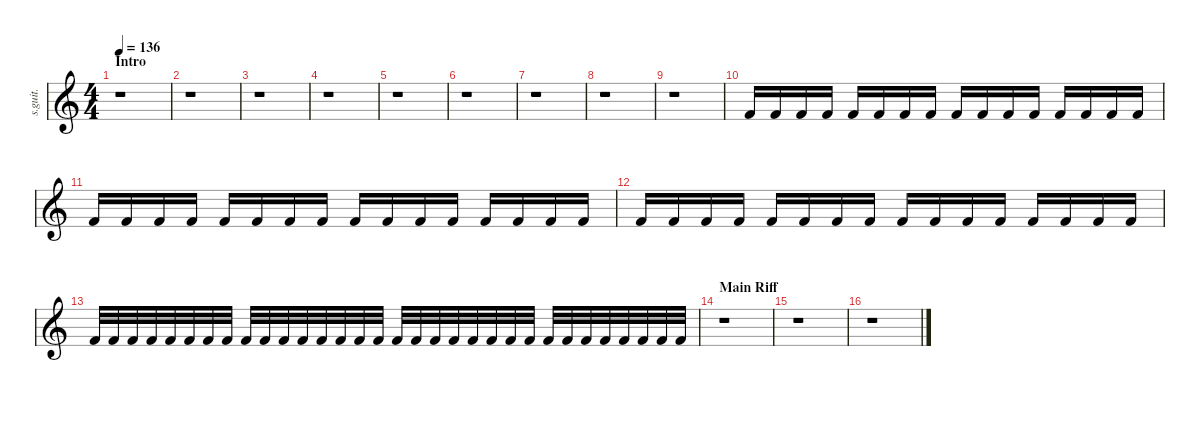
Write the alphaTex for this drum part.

\defaultSystemsLayout 4
\hideDynamics
\bracketExtendMode nobrackets
\track ("Sid Wilson (Scratch)" "s.guit.") {instrument percussion}
\staff {score}
\articulation defaults
\ts (4 4)
\beaming (8 2 2 2 2)
\section ("" "Intro")
\tempo 136
\clef g2
\ks c
r.1{dy f} |
r.1 |
r.1 |
r.1 |
r.1 |
r.1 |
r.1 |
r.1 |
r.1 |
"Kick (hit) 2".16{lyrics (0 "") lyrics (1 "") lyrics (2 "") lyrics (3 "") lyrics (4 "")} "Kick (hit) 2".16{lyrics (0 "") lyrics (1 "") lyrics (2 "") lyrics (3 "") lyrics (4 "")} "Kick (hit) 2".16{lyrics (0 "") lyrics (1 "") lyrics (2 "") lyrics (3 "") lyrics (4 "")} "Kick (hit) 2".16{lyrics (0 "") lyrics (1 "") lyrics (2 "") lyrics (3 "") lyrics (4 "")} "Kick (hit) 2".16{lyrics (0 "") lyrics (1 "") lyrics (2 "") lyrics (3 "") lyrics (4 "")} "Kick (hit) 2".16{lyrics (0 "") lyrics (1 "") lyrics (2 "") lyrics (3 "") lyrics (4 "")} "Kick (hit) 2".16{lyrics (0 "") lyrics (1 "") lyrics (2 "") lyrics (3 "") lyrics (4 "")} "Kick (hit) 2".16{lyrics (0 "") lyrics (1 "") lyrics (2 "") lyrics (3 "") lyrics (4 "")} "Kick (hit) 2".16{lyrics (0 "") lyrics (1 "") lyrics (2 "") lyrics (3 "") lyrics (4 "")} "Kick (hit) 2".16{lyrics (0 "") lyrics (1 "") lyrics (2 "") lyrics (3 "") lyrics (4 "")} "Kick (hit) 2".16{lyrics (0 "") lyrics (1 "") lyrics (2 "") lyrics (3 "") lyrics (4 "")} "Kick (hit) 2".16{lyrics (0 "") lyrics (1 "") lyrics (2 "") lyrics (3 "") lyrics (4 "")} "Kick (hit) 2".16{lyrics (0 "") lyrics (1 "") lyrics (2 "") lyrics (3 "") lyrics (4 "")} "Kick (hit) 2".16{lyrics (0 "") lyrics (1 "") lyrics (2 "") lyrics (3 "") lyrics (4 "")} "Kick (hit) 2".16{lyrics (0 "") lyrics (1 "") lyrics (2 "") lyrics (3 "") lyrics (4 "")} "Kick (hit) 2".16{lyrics (0 "") lyrics (1 "") lyrics (2 "") lyrics (3 "") lyrics (4 "")} |
"Kick (hit) 2".16{lyrics (0 "") lyrics (1 "") lyrics (2 "") lyrics (3 "") lyrics (4 "")} "Kick (hit) 2".16{lyrics (0 "") lyrics (1 "") lyrics (2 "") lyrics (3 "") lyrics (4 "")} "Kick (hit) 2".16{lyrics (0 "") lyrics (1 "") lyrics (2 "") lyrics (3 "") lyrics (4 "")} "Kick (hit) 2".16{lyrics (0 "") lyrics (1 "") lyrics (2 "") lyrics (3 "") lyrics (4 "")} "Kick (hit) 2".16{lyrics (0 "") lyrics (1 "") lyrics (2 "") lyrics (3 "") lyrics (4 "")} "Kick (hit) 2".16{lyrics (0 "") lyrics (1 "") lyrics (2 "") lyrics (3 "") lyrics (4 "")} "Kick (hit) 2".16{lyrics (0 "") lyrics (1 "") lyrics (2 "") lyrics (3 "") lyrics (4 "")} "Kick (hit) 2".16{lyrics (0 "") lyrics (1 "") lyrics (2 "") lyrics (3 "") lyrics (4 "")} "Kick (hit) 2".16{lyrics (0 "") lyrics (1 "") lyrics (2 "") lyrics (3 "") lyrics (4 "")} "Kick (hit) 2".16{lyrics (0 "") lyrics (1 "") lyrics (2 "") lyrics (3 "") lyrics (4 "")} "Kick (hit) 2".16{lyrics (0 "") lyrics (1 "") lyrics (2 "") lyrics (3 "") lyrics (4 "")} "Kick (hit) 2".16{lyrics (0 "") lyrics (1 "") lyrics (2 "") lyrics (3 "") lyrics (4 "")} "Kick (hit) 2".16{lyrics (0 "") lyrics (1 "") lyrics (2 "") lyrics (3 "") lyrics (4 "")} "Kick (hit) 2".16{lyrics (0 "") lyrics (1 "") lyrics (2 "") lyrics (3 "") lyrics (4 "")} "Kick (hit) 2".16{lyrics (0 "") lyrics (1 "") lyrics (2 "") lyrics (3 "") lyrics (4 "")} "Kick (hit) 2".16{lyrics (0 "") lyrics (1 "") lyrics (2 "") lyrics (3 "") lyrics (4 "")} |
"Kick (hit) 2".16{lyrics (0 "") lyrics (1 "") lyrics (2 "") lyrics (3 "") lyrics (4 "")} "Kick (hit) 2".16{lyrics (0 "") lyrics (1 "") lyrics (2 "") lyrics (3 "") lyrics (4 "")} "Kick (hit) 2".16{lyrics (0 "") lyrics (1 "") lyrics (2 "") lyrics (3 "") lyrics (4 "")} "Kick (hit) 2".16{lyrics (0 "") lyrics (1 "") lyrics (2 "") lyrics (3 "") lyrics (4 "")} "Kick (hit) 2".16{lyrics (0 "") lyrics (1 "") lyrics (2 "") lyrics (3 "") lyrics (4 "")} "Kick (hit) 2".16{lyrics (0 "") lyrics (1 "") lyrics (2 "") lyrics (3 "") lyrics (4 "")} "Kick (hit) 2".16{lyrics (0 "") lyrics (1 "") lyrics (2 "") lyrics (3 "") lyrics (4 "")} "Kick (hit) 2".16{lyrics (0 "") lyrics (1 "") lyrics (2 "") lyrics (3 "") lyrics (4 "")} "Kick (hit) 2".16{lyrics (0 "") lyrics (1 "") lyrics (2 "") lyrics (3 "") lyrics (4 "")} "Kick (hit) 2".16{lyrics (0 "") lyrics (1 "") lyrics (2 "") lyrics (3 "") lyrics (4 "")} "Kick (hit) 2".16{lyrics (0 "") lyrics (1 "") lyrics (2 "") lyrics (3 "") lyrics (4 "")} "Kick (hit) 2".16{lyrics (0 "") lyrics (1 "") lyrics (2 "") lyrics (3 "") lyrics (4 "")} "Kick (hit) 2".16{lyrics (0 "") lyrics (1 "") lyrics (2 "") lyrics (3 "") lyrics (4 "")} "Kick (hit) 2".16{lyrics (0 "") lyrics (1 "") lyrics (2 "") lyrics (3 "") lyrics (4 "")} "Kick (hit) 2".16{lyrics (0 "") lyrics (1 "") lyrics (2 "") lyrics (3 "") lyrics (4 "")} "Kick (hit) 2".16{lyrics (0 "") lyrics (1 "") lyrics (2 "") lyrics (3 "") lyrics (4 "")} |
"Kick (hit) 2".32{lyrics (0 "") lyrics (1 "") lyrics (2 "") lyrics (3 "") lyrics (4 "")} "Kick (hit) 2".32{lyrics (0 "") lyrics (1 "") lyrics (2 "") lyrics (3 "") lyrics (4 "")} "Kick (hit) 2".32{lyrics (0 "") lyrics (1 "") lyrics (2 "") lyrics (3 "") lyrics (4 "")} "Kick (hit) 2".32{lyrics (0 "") lyrics (1 "") lyrics (2 "") lyrics (3 "") lyrics (4 "")} "Kick (hit) 2".32{lyrics (0 "") lyrics (1 "") lyrics (2 "") lyrics (3 "") lyrics (4 "")} "Kick (hit) 2".32{lyrics (0 "") lyrics (1 "") lyrics (2 "") lyrics (3 "") lyrics (4 "")} "Kick (hit) 2".32{lyrics (0 "") lyrics (1 "") lyrics (2 "") lyrics (3 "") lyrics (4 "")} "Kick (hit) 2".32{lyrics (0 "") lyrics (1 "") lyrics (2 "") lyrics (3 "") lyrics (4 "")} "Kick (hit) 2".32{lyrics (0 "") lyrics (1 "") lyrics (2 "") lyrics (3 "") lyrics (4 "")} "Kick (hit) 2".32{lyrics (0 "") lyrics (1 "") lyrics (2 "") lyrics (3 "") lyrics (4 "")} "Kick (hit) 2".32{lyrics (0 "") lyrics (1 "") lyrics (2 "") lyrics (3 "") lyrics (4 "")} "Kick (hit) 2".32{lyrics (0 "") lyrics (1 "") lyrics (2 "") lyrics (3 "") lyrics (4 "")} "Kick (hit) 2".32{lyrics (0 "") lyrics (1 "") lyrics (2 "") lyrics (3 "") lyrics (4 "")} "Kick (hit) 2".32{lyrics (0 "") lyrics (1 "") lyrics (2 "") lyrics (3 "") lyrics (4 "")} "Kick (hit) 2".32{lyrics (0 "") lyrics (1 "") lyrics (2 "") lyrics (3 "") lyrics (4 "")} "Kick (hit) 2".32{lyrics (0 "") lyrics (1 "") lyrics (2 "") lyrics (3 "") lyrics (4 "")} "Kick (hit) 2".32{lyrics (0 "") lyrics (1 "") lyrics (2 "") lyrics (3 "") lyrics (4 "")} "Kick (hit) 2".32{lyrics (0 "") lyrics (1 "") lyrics (2 "") lyrics (3 "") lyrics (4 "")} "Kick (hit) 2".32{lyrics (0 "") lyrics (1 "") lyrics (2 "") lyrics (3 "") lyrics (4 "")} "Kick (hit) 2".32{lyrics (0 "") lyrics (1 "") lyrics (2 "") lyrics (3 "") lyrics (4 "")} "Kick (hit) 2".32{lyrics (0 "") lyrics (1 "") lyrics (2 "") lyrics (3 "") lyrics (4 "")} "Kick (hit) 2".32{lyrics (0 "") lyrics (1 "") lyrics (2 "") lyrics (3 "") lyrics (4 "")} "Kick (hit) 2".32{lyrics (0 "") lyrics (1 "") lyrics (2 "") lyrics (3 "") lyrics (4 "")} "Kick (hit) 2".32{lyrics (0 "") lyrics (1 "") lyrics (2 "") lyrics (3 "") lyrics (4 "")} "Kick (hit) 2".32{lyrics (0 "") lyrics (1 "") lyrics (2 "") lyrics (3 "") lyrics (4 "")} "Kick (hit) 2".32{lyrics (0 "") lyrics (1 "") lyrics (2 "") lyrics (3 "") lyrics (4 "")} "Kick (hit) 2".32{lyrics (0 "") lyrics (1 "") lyrics (2 "") lyrics (3 "") lyrics (4 "")} "Kick (hit) 2".32{lyrics (0 "") lyrics (1 "") lyrics (2 "") lyrics (3 "") lyrics (4 "")} "Kick (hit) 2".32{lyrics (0 "") lyrics (1 "") lyrics (2 "") lyrics (3 "") lyrics (4 "")} "Kick (hit) 2".32{lyrics (0 "") lyrics (1 "") lyrics (2 "") lyrics (3 "") lyrics (4 "")} "Kick (hit) 2".32{lyrics (0 "") lyrics (1 "") lyrics (2 "") lyrics (3 "") lyrics (4 "")} "Kick (hit) 2".32{lyrics (0 "") lyrics (1 "") lyrics (2 "") lyrics (3 "") lyrics (4 "")} |
\section ("" "Main Riff")
r.1 |
r.1 |
r.1
